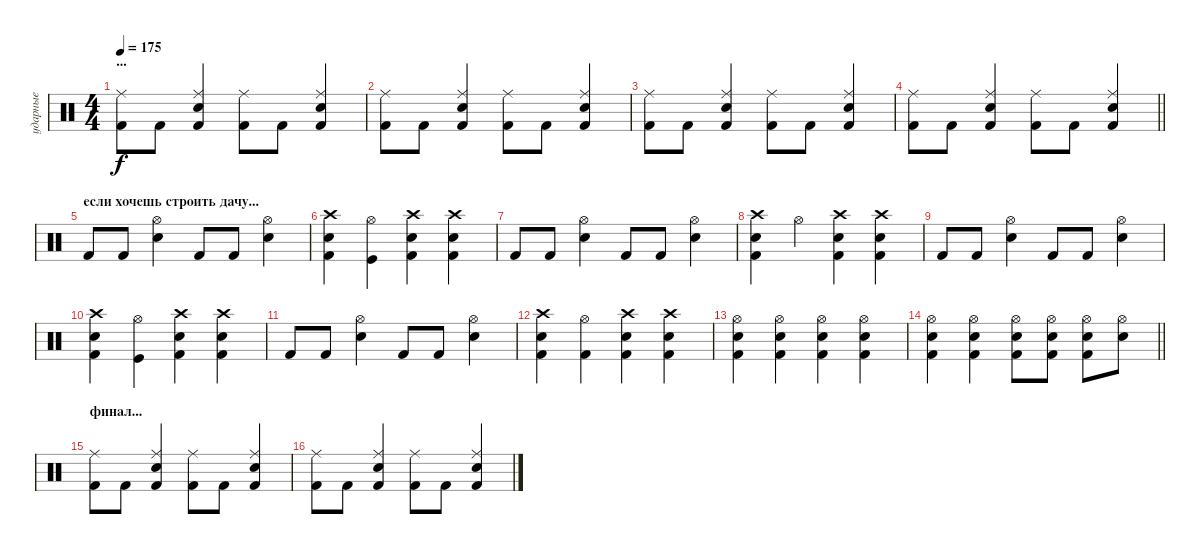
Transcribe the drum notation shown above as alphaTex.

\track ("ударные" "ударные") {instrument percussion}
\staff {score}
\articulation defaults
\ts (4 4)
\section ("" "...")
\tempo 175
\clef neutral
\ks c
("Kick (hit) 2" "Ride (middle)").8{dy f} "Kick (hit) 2".8 ("Electric Snare (hit)" "Ride (middle)" "Kick (hit) 2").4 ("Kick (hit) 2" "Ride (middle)").8 "Kick (hit) 2".8 ("Electric Snare (hit)" "Ride (middle)" "Kick (hit) 2").4 |
("Kick (hit) 2" "Ride (middle)").8 "Kick (hit) 2".8 ("Electric Snare (hit)" "Ride (middle)" "Kick (hit) 2").4 ("Kick (hit) 2" "Ride (middle)").8 "Kick (hit) 2".8 ("Electric Snare (hit)" "Ride (middle)" "Kick (hit) 2").4 |
("Kick (hit) 2" "Ride (middle)").8 "Kick (hit) 2".8 ("Electric Snare (hit)" "Ride (middle)" "Kick (hit) 2").4 ("Kick (hit) 2" "Ride (middle)").8 "Kick (hit) 2".8 ("Electric Snare (hit)" "Ride (middle)" "Kick (hit) 2").4 |
\barLineRight lightlight
("Kick (hit) 2" "Ride (middle)").8 "Kick (hit) 2".8 ("Electric Snare (hit)" "Ride (middle)" "Kick (hit) 2").4 ("Kick (hit) 2" "Ride (middle)").8 "Kick (hit) 2".8 ("Electric Snare (hit)" "Ride (middle)" "Kick (hit) 2").4 |
\section ("" "если хочешь строить дачу...")
"Kick (hit) 2".8 "Kick (hit) 2".8 ("Electric Snare (hit)" "Hi-Hat (open)").4 "Kick (hit) 2".8 "Kick (hit) 2".8 ("Electric Snare (hit)" "Hi-Hat (open)").4 |
("Electric Snare (hit)" "Crash high (hit)" "Kick (hit) 2").4 ("Hi-Hat (open)" "Kick (hit)").4 ("Electric Snare (hit)" "Crash high (hit)" "Kick (hit) 2").4 ("Electric Snare (hit)" "Crash high (hit)" "Kick (hit) 2").4 |
"Kick (hit) 2".8 "Kick (hit) 2".8 ("Electric Snare (hit)" "Hi-Hat (open)").4 "Kick (hit) 2".8 "Kick (hit) 2".8 ("Electric Snare (hit)" "Hi-Hat (open)").4 |
("Electric Snare (hit)" "Crash high (hit)" "Kick (hit) 2").4 "Hi-Hat (open)".4 ("Electric Snare (hit)" "Crash high (hit)" "Kick (hit) 2").4 ("Electric Snare (hit)" "Crash high (hit)" "Kick (hit) 2").4 |
"Kick (hit) 2".8 "Kick (hit) 2".8 ("Electric Snare (hit)" "Hi-Hat (open)").4 "Kick (hit) 2".8 "Kick (hit) 2".8 ("Electric Snare (hit)" "Hi-Hat (open)").4 |
("Electric Snare (hit)" "Crash high (hit)" "Kick (hit) 2").4 ("Hi-Hat (open)" "Kick (hit)").4 ("Electric Snare (hit)" "Crash high (hit)" "Kick (hit) 2").4 ("Electric Snare (hit)" "Crash high (hit)" "Kick (hit) 2").4 |
"Kick (hit) 2".8 "Kick (hit) 2".8 ("Electric Snare (hit)" "Hi-Hat (open)").4 "Kick (hit) 2".8 "Kick (hit) 2".8 ("Electric Snare (hit)" "Hi-Hat (open)").4 |
("Electric Snare (hit)" "Crash high (hit)" "Kick (hit) 2").4 ("Hi-Hat (open)" "Kick (hit) 2").4 ("Electric Snare (hit)" "Crash high (hit)" "Kick (hit) 2").4 ("Electric Snare (hit)" "Crash high (hit)" "Kick (hit) 2").4 |
("Electric Snare (hit)" "Hi-Hat (open)" "Kick (hit) 2").4 ("Electric Snare (hit)" "Hi-Hat (open)" "Kick (hit) 2").4 ("Electric Snare (hit)" "Hi-Hat (open)" "Kick (hit) 2").4 ("Electric Snare (hit)" "Hi-Hat (open)" "Kick (hit) 2").4 |
\barLineRight lightlight
("Electric Snare (hit)" "Hi-Hat (open)" "Kick (hit) 2").4 ("Electric Snare (hit)" "Hi-Hat (open)" "Kick (hit) 2").4 ("Electric Snare (hit)" "Hi-Hat (open)" "Kick (hit) 2").8 ("Electric Snare (hit)" "Hi-Hat (open)" "Kick (hit) 2").8 ("Hi-Hat (open)" "Kick (hit) 2" "Electric Snare (hit)").8 ("Electric Snare (hit)" "Hi-Hat (open)").8 |
\section ("" "финал...")
("Kick (hit) 2" "Ride (middle)").8 "Kick (hit) 2".8 ("Electric Snare (hit)" "Ride (middle)" "Kick (hit) 2").4 ("Kick (hit) 2" "Ride (middle)").8 "Kick (hit) 2".8 ("Electric Snare (hit)" "Ride (middle)" "Kick (hit) 2").4 |
("Kick (hit) 2" "Ride (middle)").8 "Kick (hit) 2".8 ("Electric Snare (hit)" "Ride (middle)" "Kick (hit) 2").4 ("Kick (hit) 2" "Ride (middle)").8 "Kick (hit) 2".8 ("Electric Snare (hit)" "Ride (middle)" "Kick (hit) 2").4
